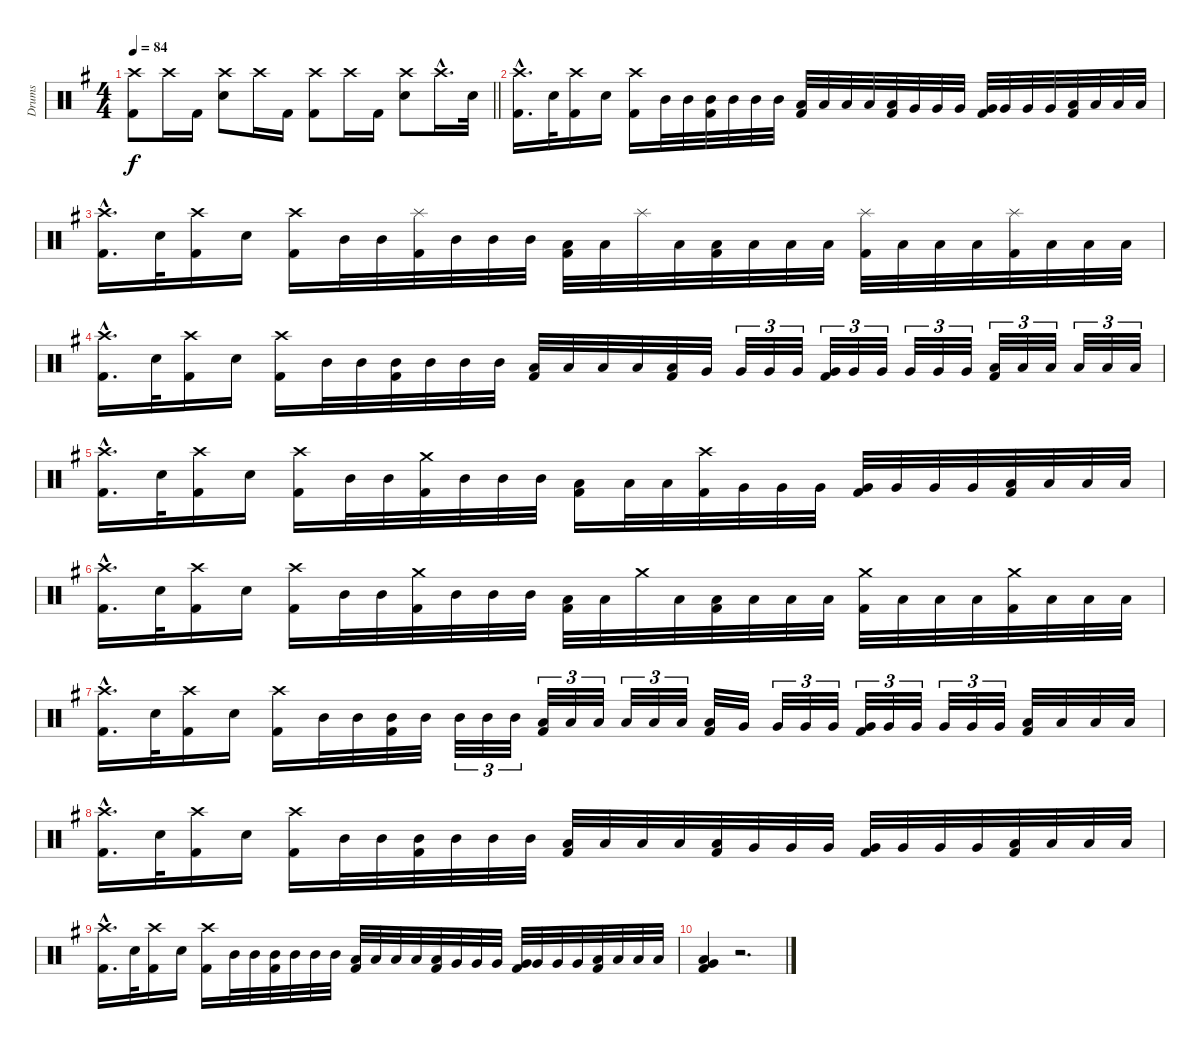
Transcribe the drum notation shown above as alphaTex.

\track ("Drums" "Drums") {instrument percussion}
\staff {score}
\articulation defaults
\ts (4 4)
\tempo 84
\clef neutral
\barLineRight lightlight
\ks eminor
("Crash high (hit)" "Kick (hit) 2").8{dy f} "Crash high (hit)".16 "Kick (hit) 2".16 ("Crash high (hit)" "Snare (hit) 2").8 "Crash high (hit)".16 "Kick (hit) 2".16 ("Crash high (hit)" "Kick (hit) 2").8 "Crash high (hit)".16 "Kick (hit) 2".16 ("Crash high (hit)" "Snare (hit) 2").8 "Crash high (hit)"{hac}.16{d} "Snare (hit) 2".32 |
("Crash high (hit)"{hac} "Kick (hit) 2"{hac}).16{d} "Snare (hit) 2".32 ("Crash high (hit)" "Kick (hit) 2").16 "Snare (hit) 2".16 ("Crash high (hit)" "Kick (hit) 2").16 "Mid Tom (hit)".32 "Mid Tom (hit)".32 ("Mid Tom (hit)" "Kick (hit) 2").32 "Mid Tom (hit)".32 "Mid Tom (hit)".32 "Mid Tom (hit)".32 ("Low Tom (hit)" "Kick (hit) 2").32 "Low Tom (hit)".32 "Low Tom (hit)".32 "Low Tom (hit)".32 ("Low Tom (hit)" "Kick (hit) 2").32 "Very Low Tom (hit)".32 "Very Low Tom (hit)".32 "Very Low Tom (hit)".32 ("Very Low Tom (hit)" "Kick (hit) 2").32 "Very Low Tom (hit)".32 "Very Low Tom (hit)".32 "Very Low Tom (hit)".32 ("Low Floor Tom (hit)" "Kick (hit) 2").32 "Low Floor Tom (hit)".32 "Low Floor Tom (hit)".32 "Low Floor Tom (hit)".32 |
("Crash high (hit)"{hac} "Kick (hit) 2"{hac}).16{d} "Snare (hit) 2".32 ("Crash high (hit)" "Kick (hit) 2").16 "Snare (hit) 2".16 ("Crash high (hit)" "Kick (hit) 2").16 "Mid Tom (hit)".32 "Mid Tom (hit)".32 ("Splash (hit)" "Kick (hit) 2").32 "Mid Tom (hit)".32 "Mid Tom (hit)".32 "Mid Tom (hit)".32 ("Low Tom (hit)" "Kick (hit) 2").32 "Low Tom (hit)".32 "Splash (hit)".32 "Low Tom (hit)".32 ("Low Tom (hit)" "Kick (hit) 2").32 "Low Tom (hit)".32 "Low Tom (hit)".32 "Low Tom (hit)".32 ("Splash (hit)" "Kick (hit) 2").32 "Low Tom (hit)".32 "Low Tom (hit)".32 "Low Tom (hit)".32 ("Splash (hit)" "Kick (hit) 2").32 "Low Tom (hit)".32 "Low Tom (hit)".32 "Low Tom (hit)".32 |
("Crash high (hit)"{hac} "Kick (hit) 2"{hac}).16{d} "Snare (hit) 2".32 ("Crash high (hit)" "Kick (hit) 2").16 "Snare (hit) 2".16 ("Crash high (hit)" "Kick (hit) 2").16 "Mid Tom (hit)".32 "Mid Tom (hit)".32 ("Mid Tom (hit)" "Kick (hit) 2").32 "Mid Tom (hit)".32 "Mid Tom (hit)".32 "Mid Tom (hit)".32 ("Low Tom (hit)" "Kick (hit) 2").32 "Low Tom (hit)".32 "Low Tom (hit)".32 "Low Tom (hit)".32 ("Low Tom (hit)" "Kick (hit) 2").32 "Very Low Tom (hit)".32 "Very Low Tom (hit)".32{tu (3 2)} "Very Low Tom (hit)".32{tu (3 2)} "Very Low Tom (hit)".32{tu (3 2)} ("Very Low Tom (hit)" "Kick (hit) 2").32{tu (3 2)} "Very Low Tom (hit)".32{tu (3 2)} "Very Low Tom (hit)".32{tu (3 2)} "Very Low Tom (hit)".32{tu (3 2)} "Very Low Tom (hit)".32{tu (3 2)} "Very Low Tom (hit)".32{tu (3 2)} ("Low Floor Tom (hit)" "Kick (hit) 2").32{tu (3 2)} "Low Floor Tom (hit)".32{tu (3 2)} "Low Floor Tom (hit)".32{tu (3 2)} "Low Floor Tom (hit)".32{tu (3 2)} "Low Floor Tom (hit)".32{tu (3 2)} "Low Floor Tom (hit)".32{tu (3 2)} |
("Crash high (hit)"{hac} "Kick (hit) 2"{hac}).16{d} "Snare (hit) 2".32 ("Crash high (hit)" "Kick (hit) 2").16 "Snare (hit) 2".16 ("Crash high (hit)" "Kick (hit) 2").16 "Mid Tom (hit)".32 "Mid Tom (hit)".32 ("Crash medium (hit)" "Kick (hit) 2").32 "Mid Tom (hit)".32 "Mid Tom (hit)".32 "Mid Tom (hit)".32 ("Low Tom (hit)" "Kick (hit) 2").16 "Low Tom (hit)".32 "Low Tom (hit)".32 ("Crash high (hit)" "Kick (hit) 2").32 "Very Low Tom (hit)".32 "Very Low Tom (hit)".32 "Very Low Tom (hit)".32 ("Very Low Tom (hit)" "Kick (hit) 2").32 "Very Low Tom (hit)".32 "Very Low Tom (hit)".32 "Very Low Tom (hit)".32 ("Low Floor Tom (hit)" "Kick (hit) 2").32 "Low Floor Tom (hit)".32 "Low Floor Tom (hit)".32 "Low Floor Tom (hit)".32 |
("Crash high (hit)"{hac} "Kick (hit) 2"{hac}).16{d} "Snare (hit) 2".32 ("Crash high (hit)" "Kick (hit) 2").16 "Snare (hit) 2".16 ("Crash high (hit)" "Kick (hit) 2").16 "Mid Tom (hit)".32 "Mid Tom (hit)".32 ("Crash medium (hit)" "Kick (hit) 2").32 "Mid Tom (hit)".32 "Mid Tom (hit)".32 "Mid Tom (hit)".32 ("Low Tom (hit)" "Kick (hit) 2").32 "Low Tom (hit)".32 "Crash medium (hit)".32 "Low Tom (hit)".32 ("Low Tom (hit)" "Kick (hit) 2").32 "Low Tom (hit)".32 "Low Tom (hit)".32 "Low Tom (hit)".32 ("Crash medium (hit)" "Kick (hit) 2").32 "Low Tom (hit)".32 "Low Tom (hit)".32 "Low Tom (hit)".32 ("Crash medium (hit)" "Kick (hit) 2").32 "Low Tom (hit)".32 "Low Tom (hit)".32 "Low Tom (hit)".32 |
("Crash high (hit)"{hac} "Kick (hit) 2"{hac}).16{d} "Snare (hit) 2".32 ("Crash high (hit)" "Kick (hit) 2").16 "Snare (hit) 2".16 ("Crash high (hit)" "Kick (hit) 2").16 "Mid Tom (hit)".32 "Mid Tom (hit)".32 ("Mid Tom (hit)" "Kick (hit) 2").32 "Mid Tom (hit)".32 "Mid Tom (hit)".32{tu (3 2)} "Mid Tom (hit)".32{tu (3 2)} "Mid Tom (hit)".32{tu (3 2)} ("Low Tom (hit)" "Kick (hit) 2").32{tu (3 2)} "Low Tom (hit)".32{tu (3 2)} "Low Tom (hit)".32{tu (3 2)} "Low Tom (hit)".32{tu (3 2)} "Low Tom (hit)".32{tu (3 2)} "Low Tom (hit)".32{tu (3 2)} ("Low Tom (hit)" "Kick (hit) 2").32 "Very Low Tom (hit)".32 "Very Low Tom (hit)".32{tu (3 2)} "Very Low Tom (hit)".32{tu (3 2)} "Very Low Tom (hit)".32{tu (3 2)} ("Very Low Tom (hit)" "Kick (hit) 2").32{tu (3 2)} "Very Low Tom (hit)".32{tu (3 2)} "Very Low Tom (hit)".32{tu (3 2)} "Very Low Tom (hit)".32{tu (3 2)} "Very Low Tom (hit)".32{tu (3 2)} "Very Low Tom (hit)".32{tu (3 2)} ("Low Floor Tom (hit)" "Kick (hit) 2").32 "Low Floor Tom (hit)".32 "Low Floor Tom (hit)".32 "Low Floor Tom (hit)".32 |
("Crash high (hit)"{hac} "Kick (hit) 2"{hac}).16{d} "Snare (hit) 2".32 ("Crash high (hit)" "Kick (hit) 2").16 "Snare (hit) 2".16 ("Crash high (hit)" "Kick (hit) 2").16 "Mid Tom (hit)".32 "Mid Tom (hit)".32 ("Mid Tom (hit)" "Kick (hit) 2").32 "Mid Tom (hit)".32 "Mid Tom (hit)".32 "Mid Tom (hit)".32 ("Low Tom (hit)" "Kick (hit) 2").32 "Low Tom (hit)".32 "Low Tom (hit)".32 "Low Tom (hit)".32 ("Low Tom (hit)" "Kick (hit) 2").32 "Very Low Tom (hit)".32 "Very Low Tom (hit)".32 "Very Low Tom (hit)".32 ("Very Low Tom (hit)" "Kick (hit) 2").32 "Very Low Tom (hit)".32 "Very Low Tom (hit)".32 "Very Low Tom (hit)".32 ("Low Floor Tom (hit)" "Kick (hit) 2").32 "Low Floor Tom (hit)".32 "Low Floor Tom (hit)".32 "Low Floor Tom (hit)".32 |
("Crash high (hit)"{hac} "Kick (hit) 2"{hac}).16{d} "Snare (hit) 2".32 ("Crash high (hit)" "Kick (hit) 2").16 "Snare (hit) 2".16 ("Crash high (hit)" "Kick (hit) 2").16 "Mid Tom (hit)".32 "Mid Tom (hit)".32 ("Mid Tom (hit)" "Kick (hit) 2").32 "Mid Tom (hit)".32 "Mid Tom (hit)".32 "Mid Tom (hit)".32 ("Low Tom (hit)" "Kick (hit) 2").32 "Low Tom (hit)".32 "Low Tom (hit)".32 "Low Tom (hit)".32 ("Low Tom (hit)" "Kick (hit) 2").32 "Very Low Tom (hit)".32 "Very Low Tom (hit)".32 "Very Low Tom (hit)".32 ("Very Low Tom (hit)" "Kick (hit) 2").32 "Very Low Tom (hit)".32 "Very Low Tom (hit)".32 "Very Low Tom (hit)".32 ("Low Floor Tom (hit)" "Kick (hit) 2").32 "Low Floor Tom (hit)".32 "Low Floor Tom (hit)".32 "Low Floor Tom (hit)".32 |
("Very Low Tom (hit)" "Low Floor Tom (hit)" "Kick (hit) 2").4 r.2{d}
